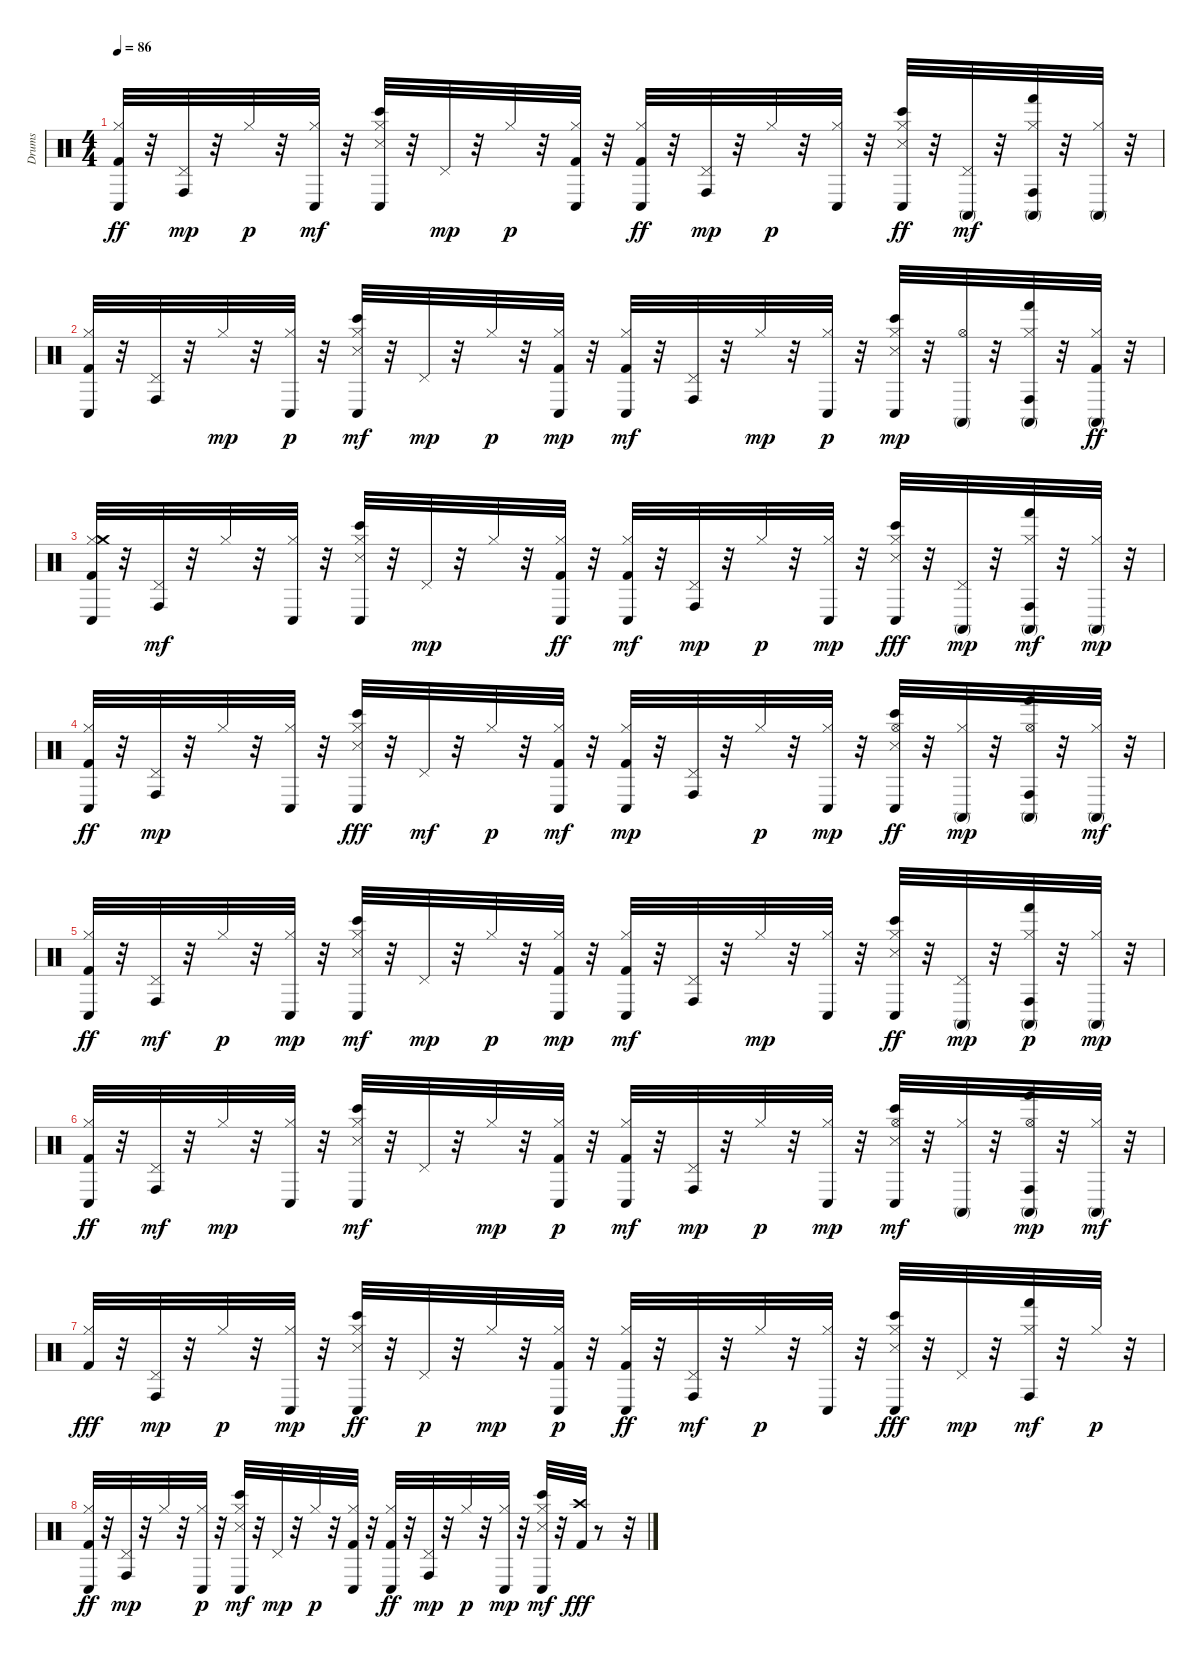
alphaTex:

\track ("Drums" "Drums") {instrument percussion}
\staff {score}
\articulation defaults
\ts (4 4)
\tempo 86
\clef neutral
\ks c
("Kick (hit) 2" "Conga low (hit)" "Hi-Hat (closed)").32{dy ff} r.32 ("Conga high (hit)" "Pedal Hi-Hat (hit)").32{dy mp} r.32 "Hi-Hat (closed)".32{dy p} r.32 ("Hi-Hat (closed)" "Conga low (hit)").32{dy mf} r.32 ("Snare (side stick) 3" "Bongo High (hit)" "Conga low (hit)" "Hi-Hat (closed)").32 r.32 "Pedal Hi-Hat (hit)".32{dy mp} r.32 "Hi-Hat (closed)".32{dy p} r.32 ("Kick (hit) 2" "Conga low (hit)" "Hi-Hat (closed)").32 r.32 ("Conga low (hit)" "Hi-Hat (closed)" "Kick (hit) 2").32{dy ff} r.32 ("Pedal Hi-Hat (hit)" "Conga high (hit)").32{dy mp} r.32 "Hi-Hat (closed)".32{dy p} r.32 ("Conga low (hit)" "Hi-Hat (closed)").32 r.32 ("Bongo High (hit)" "Conga low (hit)" "Hi-Hat (closed)" "Snare (side stick) 3").32{dy ff} r.32 ("Conga high (mute)" "Pedal Hi-Hat (hit)").32{dy mf} r.32 ("Conga high (hit)" "Conga high (mute)" "Hi-Hat (closed)" "Hand (hit)").32 r.32 ("Hi-Hat (closed)" "Conga high (mute)").32 r.32 |
("Kick (hit) 2" "Hi-Hat (closed)" "Conga low (hit)").32 r.32 ("Pedal Hi-Hat (hit)" "Conga high (hit)").32 r.32 "Hi-Hat (closed)".32{dy mp} r.32 ("Conga low (hit)" "Hi-Hat (closed)").32{dy p} r.32 ("Conga low (hit)" "Hi-Hat (closed)" "Snare (side stick) 3" "Bongo High (hit)").32{dy mf} r.32 "Pedal Hi-Hat (hit)".32{dy mp} r.32 "Hi-Hat (closed)".32{dy p} r.32 ("Kick (hit) 2" "Conga low (hit)" "Hi-Hat (closed)").32{dy mp} r.32 ("Conga low (hit)" "Hi-Hat (closed)" "Kick (hit) 2").32{dy mf} r.32 ("Conga high (hit)" "Pedal Hi-Hat (hit)").32 r.32 "Hi-Hat (closed)".32{dy mp} r.32 ("Conga low (hit)" "Hi-Hat (closed)").32{dy p} r.32 ("Snare (side stick) 3" "Conga low (hit)" "Bongo High (hit)" "Hi-Hat (closed)").32{dy mp} r.32 ("Conga high (mute)" "Hi-Hat (open)").32 r.32 ("Hi-Hat (closed)" "Conga high (mute)" "Conga high (hit)" "Hand (hit)").32 r.32 ("Conga high (mute)" "Hi-Hat (closed)" "Kick (hit) 2").32{dy ff} r.32 |
("Hi-Hat (closed)" "Crash medium (hit)" "Conga low (hit)" "Kick (hit) 2").32 r.32 ("Pedal Hi-Hat (hit)" "Conga high (hit)").32{dy mf} r.32 "Hi-Hat (closed)".32 r.32 ("Hi-Hat (closed)" "Conga low (hit)").32 r.32 ("Hi-Hat (closed)" "Conga low (hit)" "Bongo High (hit)" "Snare (side stick) 3").32 r.32 "Pedal Hi-Hat (hit)".32{dy mp} r.32 "Hi-Hat (closed)".32 r.32 ("Hi-Hat (closed)" "Conga low (hit)" "Kick (hit) 2").32{dy ff} r.32 ("Hi-Hat (closed)" "Conga low (hit)" "Kick (hit) 2").32{dy mf} r.32 ("Pedal Hi-Hat (hit)" "Conga high (hit)").32{dy mp} r.32 "Hi-Hat (closed)".32{dy p} r.32 ("Conga low (hit)" "Hi-Hat (closed)").32{dy mp} r.32 ("Conga low (hit)" "Bongo High (hit)" "Snare (side stick) 3" "Hi-Hat (closed)").32{dy fff} r.32 ("Conga high (mute)" "Pedal Hi-Hat (hit)").32{dy mp} r.32 ("Hi-Hat (closed)" "Conga high (hit)" "Conga high (mute)" "Hand (hit)").32{dy mf} r.32 ("Conga high (mute)" "Hi-Hat (closed)").32{dy mp} r.32 |
("Kick (hit) 2" "Conga low (hit)" "Hi-Hat (closed)").32{dy ff} r.32 ("Pedal Hi-Hat (hit)" "Conga high (hit)").32{dy mp} r.32 "Hi-Hat (closed)".32 r.32 ("Conga low (hit)" "Hi-Hat (closed)").32 r.32 ("Bongo High (hit)" "Conga low (hit)" "Snare (side stick) 3" "Hi-Hat (closed)").32{dy fff} r.32 "Pedal Hi-Hat (hit)".32{dy mf} r.32 "Hi-Hat (closed)".32{dy p} r.32 ("Kick (hit) 2" "Conga low (hit)" "Hi-Hat (closed)").32{dy mf} r.32 ("Conga low (hit)" "Hi-Hat (closed)" "Kick (hit) 2").32{dy mp} r.32 ("Pedal Hi-Hat (hit)" "Conga high (hit)").32 r.32 "Hi-Hat (closed)".32{dy p} r.32 ("Conga low (hit)" "Hi-Hat (closed)").32{dy mp} r.32 ("Conga low (hit)" "Bongo High (hit)" "Hi-Hat (open)" "Snare (side stick) 3").32{dy ff} r.32 ("Conga high (mute)" "Hi-Hat (closed)").32{dy mp} r.32 ("Hi-Hat (open)" "Conga high (mute)" "Conga high (hit)" "Hand (hit)").32 r.32 ("Hi-Hat (closed)" "Conga high (mute)").32{dy mf} r.32 |
("Hi-Hat (closed)" "Conga low (hit)" "Kick (hit) 2").32{dy ff} r.32 ("Conga high (hit)" "Pedal Hi-Hat (hit)").32{dy mf} r.32 "Hi-Hat (closed)".32{dy p} r.32 ("Conga low (hit)" "Hi-Hat (closed)").32{dy mp} r.32 ("Snare (side stick) 3" "Conga low (hit)" "Bongo High (hit)" "Hi-Hat (closed)").32{dy mf} r.32 "Pedal Hi-Hat (hit)".32{dy mp} r.32 "Hi-Hat (closed)".32{dy p} r.32 ("Hi-Hat (closed)" "Conga low (hit)" "Kick (hit) 2").32{dy mp} r.32 ("Hi-Hat (closed)" "Conga low (hit)" "Kick (hit) 2").32{dy mf} r.32 ("Pedal Hi-Hat (hit)" "Conga high (hit)").32 r.32 "Hi-Hat (closed)".32{dy mp} r.32 ("Conga low (hit)" "Hi-Hat (closed)").32 r.32 ("Conga low (hit)" "Bongo High (hit)" "Snare (side stick) 3" "Hi-Hat (closed)").32{dy ff} r.32 ("Conga high (mute)" "Pedal Hi-Hat (hit)").32{dy mp} r.32 ("Conga high (hit)" "Conga high (mute)" "Hand (hit)" "Hi-Hat (closed)").32{dy p} r.32 ("Conga high (mute)" "Hi-Hat (closed)").32{dy mp} r.32 |
("Conga low (hit)" "Kick (hit) 2" "Hi-Hat (closed)").32{dy ff} r.32 ("Conga high (hit)" "Pedal Hi-Hat (hit)").32{dy mf} r.32 "Hi-Hat (closed)".32{dy mp} r.32 ("Conga low (hit)" "Hi-Hat (closed)").32 r.32 ("Conga low (hit)" "Snare (side stick) 3" "Hi-Hat (closed)" "Bongo High (hit)").32{dy mf} r.32 "Pedal Hi-Hat (hit)".32 r.32 "Hi-Hat (closed)".32{dy mp} r.32 ("Kick (hit) 2" "Conga low (hit)" "Hi-Hat (closed)").32{dy p} r.32 ("Conga low (hit)" "Kick (hit) 2" "Hi-Hat (closed)").32{dy mf} r.32 ("Conga high (hit)" "Pedal Hi-Hat (hit)").32{dy mp} r.32 "Hi-Hat (closed)".32{dy p} r.32 ("Conga low (hit)" "Hi-Hat (closed)").32{dy mp} r.32 ("Conga low (hit)" "Bongo High (hit)" "Snare (side stick) 3" "Hi-Hat (open)").32{dy mf} r.32 ("Hi-Hat (closed)" "Conga high (mute)").32 r.32 ("Hi-Hat (open)" "Conga high (hit)" "Conga high (mute)" "Hand (hit)").32{dy mp} r.32 ("Hi-Hat (closed)" "Conga high (mute)").32{dy mf} r.32 |
("Kick (hit) 2" "Hi-Hat (closed)").32{dy fff} r.32 ("Conga high (hit)" "Pedal Hi-Hat (hit)").32{dy mp} r.32 "Hi-Hat (closed)".32{dy p} r.32 ("Conga low (hit)" "Hi-Hat (closed)").32{dy mp} r.32 ("Snare (side stick) 3" "Conga low (hit)" "Bongo High (hit)" "Hi-Hat (closed)").32{dy ff} r.32 "Pedal Hi-Hat (hit)".32{dy p} r.32 "Hi-Hat (closed)".32{dy mp} r.32 ("Kick (hit) 2" "Conga low (hit)" "Hi-Hat (closed)").32{dy p} r.32 ("Conga low (hit)" "Kick (hit) 2" "Hi-Hat (closed)").32{dy ff} r.32 ("Conga high (hit)" "Pedal Hi-Hat (hit)").32{dy mf} r.32 "Hi-Hat (closed)".32{dy p} r.32 ("Conga low (hit)" "Hi-Hat (closed)").32 r.32 ("Conga low (hit)" "Hi-Hat (closed)" "Bongo High (hit)" "Snare (side stick) 3").32{dy fff} r.32 "Pedal Hi-Hat (hit)".32{dy mp} r.32 ("Hi-Hat (closed)" "Conga high (hit)" "Hand (hit)").32{dy mf} r.32 "Hi-Hat (closed)".32{dy p} r.32 |
("Hi-Hat (closed)" "Conga low (hit)" "Kick (hit) 2").32{dy ff} r.32 ("Pedal Hi-Hat (hit)" "Conga high (hit)").32{dy mp} r.32 "Hi-Hat (closed)".32 r.32 ("Conga low (hit)" "Hi-Hat (closed)").32{dy p} r.32 ("Hi-Hat (closed)" "Snare (side stick) 3" "Conga low (hit)" "Bongo High (hit)").32{dy mf} r.32 "Pedal Hi-Hat (hit)".32{dy mp} r.32 "Hi-Hat (closed)".32{dy p} r.32 ("Kick (hit) 2" "Conga low (hit)" "Hi-Hat (closed)").32 r.32 ("Conga low (hit)" "Hi-Hat (closed)" "Kick (hit) 2").32{dy ff} r.32 ("Conga high (hit)" "Pedal Hi-Hat (hit)").32{dy mp} r.32 "Hi-Hat (closed)".32{dy p} r.32 ("Conga low (hit)" "Hi-Hat (closed)").32{dy mp} r.32 ("Bongo High (hit)" "Snare (side stick) 3" "Conga low (hit)" "Hi-Hat (closed)").32{dy mf} r.32 ("Crash high (hit)" "Kick (hit) 2").32{dy fff} r.8 r.32
